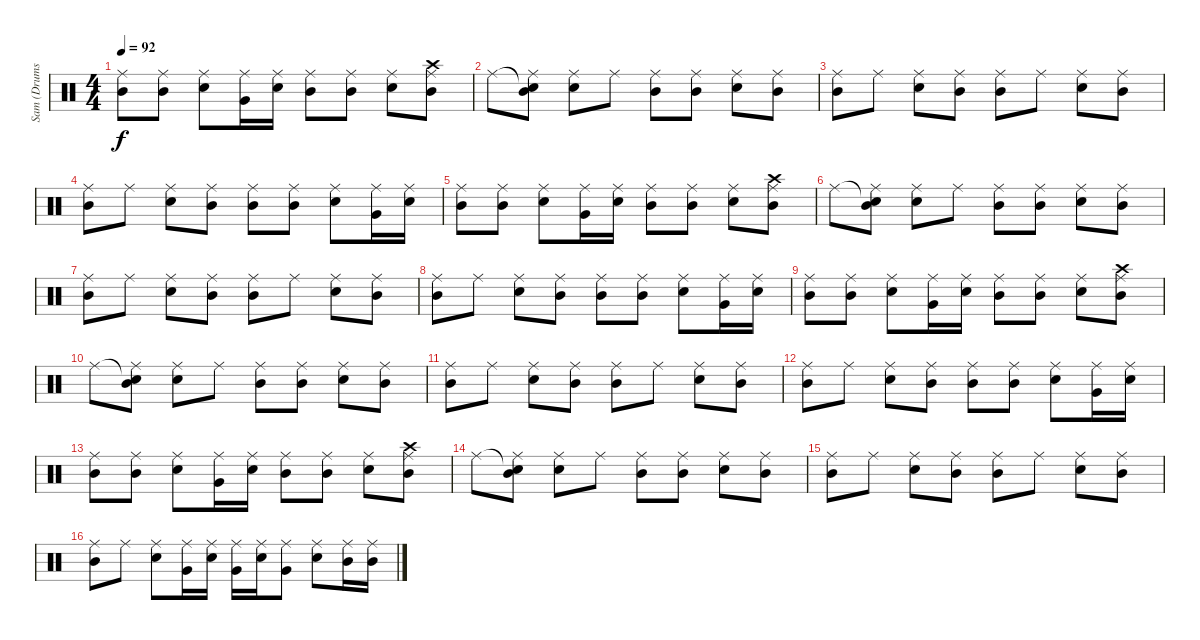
\track ("Sam (Drums)" "Sam (Drums") {instrument percussion}
\staff {score}
\articulation defaults
\ts (4 4)
\section ("" "")
\tempo 92
\clef neutral
\ks c
("Mid Tom (hit)" "Ride (middle)").8{dy f} ("Mid Tom (hit)" "Ride (middle)").8 ("Electric Snare (hit)" "Ride (middle)").8 ("Very Low Tom (hit)" "Ride (middle)").16 ("Electric Snare (hit)" "Ride (middle)").16 ("Mid Tom (hit)" "Ride (middle)").8 ("Mid Tom (hit)" "Ride (middle)").8 ("Electric Snare (hit)" "Ride (middle)").8 ("Crash high (hit)" "Mid Tom (hit)" "Ride (middle)").8 |
"Ride (middle)".8 ("Snare (hit)"{t} "Mid Tom (hit)" "Ride (middle)").8 ("Electric Snare (hit)" "Ride (middle)").8 "Ride (middle)".8 ("Mid Tom (hit)" "Ride (middle)").8 ("Mid Tom (hit)" "Ride (middle)").8 ("Electric Snare (hit)" "Ride (middle)").8 ("Mid Tom (hit)" "Ride (middle)").8 |
("Mid Tom (hit)" "Ride (middle)").8 "Ride (middle)".8 ("Electric Snare (hit)" "Ride (middle)").8 ("Mid Tom (hit)" "Ride (middle)").8 ("Mid Tom (hit)" "Ride (middle)").8 "Ride (middle)".8 ("Electric Snare (hit)" "Ride (middle)").8 ("Mid Tom (hit)" "Ride (middle)").8 |
("Mid Tom (hit)" "Ride (middle)").8 "Ride (middle)".8 ("Electric Snare (hit)" "Ride (middle)").8 ("Mid Tom (hit)" "Ride (middle)").8 ("Mid Tom (hit)" "Ride (middle)").8 ("Mid Tom (hit)" "Ride (middle)").8 ("Electric Snare (hit)" "Ride (middle)").8 ("Very Low Tom (hit)" "Ride (middle)").16 ("Electric Snare (hit)" "Ride (middle)").16 |
("Mid Tom (hit)" "Ride (middle)").8 ("Mid Tom (hit)" "Ride (middle)").8 ("Electric Snare (hit)" "Ride (middle)").8 ("Very Low Tom (hit)" "Ride (middle)").16 ("Electric Snare (hit)" "Ride (middle)").16 ("Mid Tom (hit)" "Ride (middle)").8 ("Mid Tom (hit)" "Ride (middle)").8 ("Electric Snare (hit)" "Ride (middle)").8 ("Crash high (hit)" "Mid Tom (hit)" "Ride (middle)").8 |
"Ride (middle)".8 ("Snare (hit)"{t} "Mid Tom (hit)" "Ride (middle)").8 ("Electric Snare (hit)" "Ride (middle)").8 "Ride (middle)".8 ("Mid Tom (hit)" "Ride (middle)").8 ("Mid Tom (hit)" "Ride (middle)").8 ("Electric Snare (hit)" "Ride (middle)").8 ("Mid Tom (hit)" "Ride (middle)").8 |
("Mid Tom (hit)" "Ride (middle)").8 "Ride (middle)".8 ("Electric Snare (hit)" "Ride (middle)").8 ("Mid Tom (hit)" "Ride (middle)").8 ("Mid Tom (hit)" "Ride (middle)").8 "Ride (middle)".8 ("Electric Snare (hit)" "Ride (middle)").8 ("Mid Tom (hit)" "Ride (middle)").8 |
("Mid Tom (hit)" "Ride (middle)").8 "Ride (middle)".8 ("Electric Snare (hit)" "Ride (middle)").8 ("Mid Tom (hit)" "Ride (middle)").8 ("Mid Tom (hit)" "Ride (middle)").8 ("Mid Tom (hit)" "Ride (middle)").8 ("Electric Snare (hit)" "Ride (middle)").8 ("Very Low Tom (hit)" "Ride (middle)").16 ("Electric Snare (hit)" "Ride (middle)").16 |
("Mid Tom (hit)" "Ride (middle)").8 ("Mid Tom (hit)" "Ride (middle)").8 ("Electric Snare (hit)" "Ride (middle)").8 ("Very Low Tom (hit)" "Ride (middle)").16 ("Electric Snare (hit)" "Ride (middle)").16 ("Mid Tom (hit)" "Ride (middle)").8 ("Mid Tom (hit)" "Ride (middle)").8 ("Electric Snare (hit)" "Ride (middle)").8 ("Crash high (hit)" "Mid Tom (hit)" "Ride (middle)").8 |
"Ride (middle)".8 ("Snare (hit)"{t} "Mid Tom (hit)" "Ride (middle)").8 ("Electric Snare (hit)" "Ride (middle)").8 "Ride (middle)".8 ("Mid Tom (hit)" "Ride (middle)").8 ("Mid Tom (hit)" "Ride (middle)").8 ("Electric Snare (hit)" "Ride (middle)").8 ("Mid Tom (hit)" "Ride (middle)").8 |
("Mid Tom (hit)" "Ride (middle)").8 "Ride (middle)".8 ("Electric Snare (hit)" "Ride (middle)").8 ("Mid Tom (hit)" "Ride (middle)").8 ("Mid Tom (hit)" "Ride (middle)").8 "Ride (middle)".8 ("Electric Snare (hit)" "Ride (middle)").8 ("Mid Tom (hit)" "Ride (middle)").8 |
("Mid Tom (hit)" "Ride (middle)").8 "Ride (middle)".8 ("Electric Snare (hit)" "Ride (middle)").8 ("Mid Tom (hit)" "Ride (middle)").8 ("Mid Tom (hit)" "Ride (middle)").8 ("Mid Tom (hit)" "Ride (middle)").8 ("Electric Snare (hit)" "Ride (middle)").8 ("Very Low Tom (hit)" "Ride (middle)").16 ("Electric Snare (hit)" "Ride (middle)").16 |
("Mid Tom (hit)" "Ride (middle)").8 ("Mid Tom (hit)" "Ride (middle)").8 ("Electric Snare (hit)" "Ride (middle)").8 ("Very Low Tom (hit)" "Ride (middle)").16 ("Electric Snare (hit)" "Ride (middle)").16 ("Mid Tom (hit)" "Ride (middle)").8 ("Mid Tom (hit)" "Ride (middle)").8 ("Electric Snare (hit)" "Ride (middle)").8 ("Crash high (hit)" "Mid Tom (hit)" "Ride (middle)").8 |
"Ride (middle)".8 ("Snare (hit)"{t} "Mid Tom (hit)" "Ride (middle)").8 ("Electric Snare (hit)" "Ride (middle)").8 "Ride (middle)".8 ("Mid Tom (hit)" "Ride (middle)").8 ("Mid Tom (hit)" "Ride (middle)").8 ("Electric Snare (hit)" "Ride (middle)").8 ("Mid Tom (hit)" "Ride (middle)").8 |
("Mid Tom (hit)" "Ride (middle)").8 "Ride (middle)".8 ("Electric Snare (hit)" "Ride (middle)").8 ("Mid Tom (hit)" "Ride (middle)").8 ("Mid Tom (hit)" "Ride (middle)").8 "Ride (middle)".8 ("Electric Snare (hit)" "Ride (middle)").8 ("Mid Tom (hit)" "Ride (middle)").8 |
("Mid Tom (hit)" "Ride (middle)").8 "Ride (middle)".8 ("Electric Snare (hit)" "Ride (middle)").8 ("Very Low Tom (hit)" "Ride (middle)").16 ("Electric Snare (hit)" "Ride (middle)").16 ("Very Low Tom (hit)" "Ride (middle)").16 ("Electric Snare (hit)" "Ride (middle)").16 ("Very Low Tom (hit)" "Ride (middle)").8 ("Electric Snare (hit)" "Ride (middle)").8 ("Mid Tom (hit)" "Ride (middle)").16 ("Mid Tom (hit)" "Ride (middle)").16
